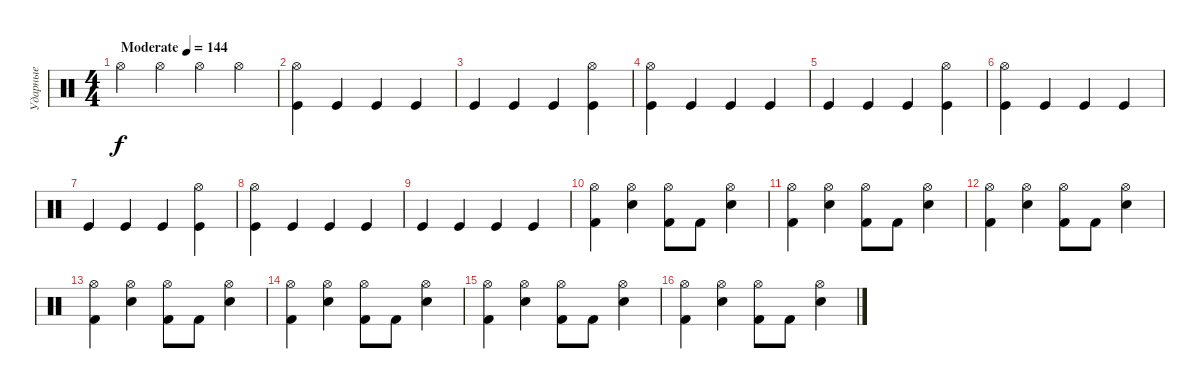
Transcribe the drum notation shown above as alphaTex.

\track ("Ударные" "Ударные") {instrument percussion}
\staff {score}
\articulation defaults
\ts (4 4)
\tempo (144 "Moderate")
\clef neutral
\ks c "Hi-Hat (open)".4{dy f} "Hi-Hat (open)".4 "Hi-Hat (open)".4 "Hi-Hat (open)".4
|
("Hi-Hat (open)" "Kick (hit)").4 "Kick (hit)".4 "Kick (hit)".4 "Kick (hit)".4 |
"Kick (hit)".4 "Kick (hit)".4 "Kick (hit)".4 ("Hi-Hat (open)" "Kick (hit)").4 |
("Hi-Hat (open)" "Kick (hit)").4 "Kick (hit)".4 "Kick (hit)".4 "Kick (hit)".4 |
"Kick (hit)".4 "Kick (hit)".4 "Kick (hit)".4 ("Hi-Hat (open)" "Kick (hit)").4 |
("Hi-Hat (open)" "Kick (hit)").4 "Kick (hit)".4 "Kick (hit)".4 "Kick (hit)".4 |
"Kick (hit)".4 "Kick (hit)".4 "Kick (hit)".4 ("Hi-Hat (open)" "Kick (hit)").4 |
("Hi-Hat (open)" "Kick (hit)").4 "Kick (hit)".4 "Kick (hit)".4 "Kick (hit)".4 |
"Kick (hit)".4 "Kick (hit)".4 "Kick (hit)".4 "Kick (hit)".4 |
("Hi-Hat (open)" "Kick (hit) 2").4 ("Hi-Hat (open)" "Snare (hit) 2").4 ("Hi-Hat (open)" "Kick (hit) 2").8 "Kick (hit) 2".8 ("Hi-Hat (open)" "Snare (hit) 2").4 |
("Hi-Hat (open)" "Kick (hit) 2").4 ("Hi-Hat (open)" "Snare (hit) 2").4 ("Hi-Hat (open)" "Kick (hit) 2").8 "Kick (hit) 2".8 ("Hi-Hat (open)" "Snare (hit) 2").4 |
("Hi-Hat (open)" "Kick (hit) 2").4 ("Hi-Hat (open)" "Snare (hit) 2").4 ("Hi-Hat (open)" "Kick (hit) 2").8 "Kick (hit) 2".8 ("Hi-Hat (open)" "Snare (hit) 2").4 |
("Hi-Hat (open)" "Kick (hit) 2").4 ("Hi-Hat (open)" "Snare (hit) 2").4 ("Hi-Hat (open)" "Kick (hit) 2").8 "Kick (hit) 2".8 ("Hi-Hat (open)" "Snare (hit) 2").4 |
("Hi-Hat (open)" "Kick (hit) 2").4 ("Hi-Hat (open)" "Snare (hit) 2").4 ("Hi-Hat (open)" "Kick (hit) 2").8 "Kick (hit) 2".8 ("Hi-Hat (open)" "Snare (hit) 2").4 |
("Hi-Hat (open)" "Kick (hit) 2").4 ("Hi-Hat (open)" "Snare (hit) 2").4 ("Hi-Hat (open)" "Kick (hit) 2").8 "Kick (hit) 2".8 ("Hi-Hat (open)" "Snare (hit) 2").4 |
("Hi-Hat (open)" "Kick (hit) 2").4 ("Hi-Hat (open)" "Snare (hit) 2").4 ("Hi-Hat (open)" "Kick (hit) 2").8 "Kick (hit) 2".8 ("Hi-Hat (open)" "Snare (hit) 2").4
